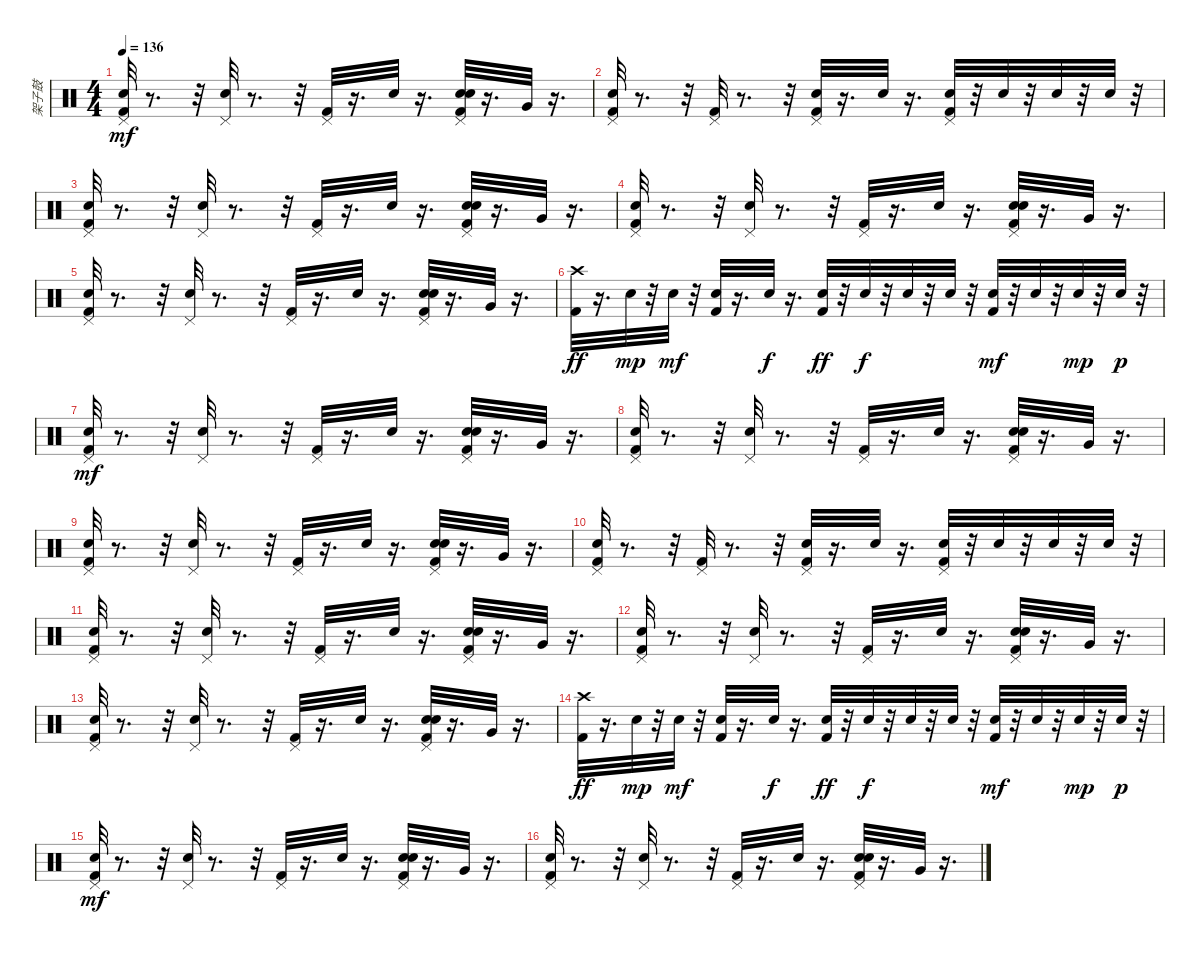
\track ("架子鼓" "架子鼓") {instrument percussion}
\staff {score}
\articulation defaults
\ts (4 4)
\tempo 136
\clef neutral
\ks c
("Pedal Hi-Hat (hit)" "Kick (hit) 2" "Metronome (bell)").32{dy mf} r.8{d} r.32 ("Pedal Hi-Hat (hit)" "Metronome (bell)").32 r.8{d} r.32 ("Pedal Hi-Hat (hit)" "Kick (hit) 2").32 r.16{d} "Metronome (bell)".32 r.16{d} ("Pedal Hi-Hat (hit)" "Electric Snare (hit)" "Kick (hit) 2" "Metronome (bell)").32 r.16{d} "Very Low Tom (hit)".32 r.16{d} |
("Pedal Hi-Hat (hit)" "Kick (hit) 2" "Metronome (bell)").32 r.8{d} r.32 ("Pedal Hi-Hat (hit)" "Kick (hit) 2").32 r.8{d} r.32 ("Pedal Hi-Hat (hit)" "Kick (hit) 2" "Metronome (bell)").32 r.16{d} "Metronome (bell)".32 r.16{d} ("Pedal Hi-Hat (hit)" "Kick (hit) 2" "Metronome (bell)").32 r.32 "Metronome (bell)".32 r.32 "Metronome (bell)".32 r.32 "Metronome (bell)".32 r.32 |
("Pedal Hi-Hat (hit)" "Kick (hit) 2" "Metronome (bell)").32 r.8{d} r.32 ("Pedal Hi-Hat (hit)" "Metronome (bell)").32 r.8{d} r.32 ("Pedal Hi-Hat (hit)" "Kick (hit) 2").32 r.16{d} "Metronome (bell)".32 r.16{d} ("Pedal Hi-Hat (hit)" "Electric Snare (hit)" "Kick (hit) 2" "Metronome (bell)").32 r.16{d} "Very Low Tom (hit)".32 r.16{d} |
("Pedal Hi-Hat (hit)" "Kick (hit) 2" "Metronome (bell)").32 r.8{d} r.32 ("Pedal Hi-Hat (hit)" "Metronome (bell)").32 r.8{d} r.32 ("Pedal Hi-Hat (hit)" "Kick (hit) 2").32 r.16{d} "Metronome (bell)".32 r.16{d} ("Pedal Hi-Hat (hit)" "Electric Snare (hit)" "Kick (hit) 2" "Metronome (bell)").32 r.16{d} "Very Low Tom (hit)".32 r.16{d} |
("Pedal Hi-Hat (hit)" "Kick (hit) 2" "Metronome (bell)").32 r.8{d} r.32 ("Pedal Hi-Hat (hit)" "Metronome (bell)").32 r.8{d} r.32 ("Pedal Hi-Hat (hit)" "Kick (hit) 2").32 r.16{d} "Metronome (bell)".32 r.16{d} ("Pedal Hi-Hat (hit)" "Electric Snare (hit)" "Kick (hit) 2" "Metronome (bell)").32 r.16{d} "Very Low Tom (hit)".32 r.16{d} |
("Crash high (hit)" "Kick (hit) 2").32{dy ff} r.16{d} "Metronome (bell)".32{dy mp} r.32 "Metronome (bell)".32{dy mf} r.32 ("Metronome (bell)" "Kick (hit) 2").32 r.16{d} "Metronome (bell)".32{dy f} r.16{d} ("Kick (hit) 2" "Metronome (bell)").32{dy ff} r.32 "Metronome (bell)".32{dy f} r.32 "Metronome (bell)".32 r.32 "Metronome (bell)".32 r.32 ("Kick (hit) 2" "Metronome (bell)").32{dy mf} r.32 "Metronome (bell)".32 r.32 "Metronome (bell)".32{dy mp} r.32 "Metronome (bell)".32{dy p} r.32 |
("Pedal Hi-Hat (hit)" "Kick (hit) 2" "Metronome (bell)").32{dy mf} r.8{d} r.32 ("Pedal Hi-Hat (hit)" "Metronome (bell)").32 r.8{d} r.32 ("Pedal Hi-Hat (hit)" "Kick (hit) 2").32 r.16{d} "Metronome (bell)".32 r.16{d} ("Pedal Hi-Hat (hit)" "Electric Snare (hit)" "Kick (hit) 2" "Metronome (bell)").32 r.16{d} "Very Low Tom (hit)".32 r.16{d} |
("Pedal Hi-Hat (hit)" "Kick (hit) 2" "Metronome (bell)").32 r.8{d} r.32 ("Pedal Hi-Hat (hit)" "Metronome (bell)").32 r.8{d} r.32 ("Pedal Hi-Hat (hit)" "Kick (hit) 2").32 r.16{d} "Metronome (bell)".32 r.16{d} ("Pedal Hi-Hat (hit)" "Electric Snare (hit)" "Kick (hit) 2" "Metronome (bell)").32 r.16{d} "Very Low Tom (hit)".32 r.16{d} |
("Pedal Hi-Hat (hit)" "Kick (hit) 2" "Metronome (bell)").32 r.8{d} r.32 ("Pedal Hi-Hat (hit)" "Metronome (bell)").32 r.8{d} r.32 ("Pedal Hi-Hat (hit)" "Kick (hit) 2").32 r.16{d} "Metronome (bell)".32 r.16{d} ("Pedal Hi-Hat (hit)" "Electric Snare (hit)" "Kick (hit) 2" "Metronome (bell)").32 r.16{d} "Very Low Tom (hit)".32 r.16{d} |
("Pedal Hi-Hat (hit)" "Kick (hit) 2" "Metronome (bell)").32 r.8{d} r.32 ("Pedal Hi-Hat (hit)" "Kick (hit) 2").32 r.8{d} r.32 ("Pedal Hi-Hat (hit)" "Kick (hit) 2" "Metronome (bell)").32 r.16{d} "Metronome (bell)".32 r.16{d} ("Pedal Hi-Hat (hit)" "Kick (hit) 2" "Metronome (bell)").32 r.32 "Metronome (bell)".32 r.32 "Metronome (bell)".32 r.32 "Metronome (bell)".32 r.32 |
("Pedal Hi-Hat (hit)" "Kick (hit) 2" "Metronome (bell)").32 r.8{d} r.32 ("Pedal Hi-Hat (hit)" "Metronome (bell)").32 r.8{d} r.32 ("Pedal Hi-Hat (hit)" "Kick (hit) 2").32 r.16{d} "Metronome (bell)".32 r.16{d} ("Pedal Hi-Hat (hit)" "Electric Snare (hit)" "Kick (hit) 2" "Metronome (bell)").32 r.16{d} "Very Low Tom (hit)".32 r.16{d} |
("Pedal Hi-Hat (hit)" "Kick (hit) 2" "Metronome (bell)").32 r.8{d} r.32 ("Pedal Hi-Hat (hit)" "Metronome (bell)").32 r.8{d} r.32 ("Pedal Hi-Hat (hit)" "Kick (hit) 2").32 r.16{d} "Metronome (bell)".32 r.16{d} ("Pedal Hi-Hat (hit)" "Electric Snare (hit)" "Kick (hit) 2" "Metronome (bell)").32 r.16{d} "Very Low Tom (hit)".32 r.16{d} |
("Pedal Hi-Hat (hit)" "Kick (hit) 2" "Metronome (bell)").32 r.8{d} r.32 ("Pedal Hi-Hat (hit)" "Metronome (bell)").32 r.8{d} r.32 ("Pedal Hi-Hat (hit)" "Kick (hit) 2").32 r.16{d} "Metronome (bell)".32 r.16{d} ("Pedal Hi-Hat (hit)" "Electric Snare (hit)" "Kick (hit) 2" "Metronome (bell)").32 r.16{d} "Very Low Tom (hit)".32 r.16{d} |
("Crash high (hit)" "Kick (hit) 2").32{dy ff} r.16{d} "Metronome (bell)".32{dy mp} r.32 "Metronome (bell)".32{dy mf} r.32 ("Metronome (bell)" "Kick (hit) 2").32 r.16{d} "Metronome (bell)".32{dy f} r.16{d} ("Kick (hit) 2" "Metronome (bell)").32{dy ff} r.32 "Metronome (bell)".32{dy f} r.32 "Metronome (bell)".32 r.32 "Metronome (bell)".32 r.32 ("Kick (hit) 2" "Metronome (bell)").32{dy mf} r.32 "Metronome (bell)".32 r.32 "Metronome (bell)".32{dy mp} r.32 "Metronome (bell)".32{dy p} r.32 |
("Pedal Hi-Hat (hit)" "Kick (hit) 2" "Metronome (bell)").32{dy mf} r.8{d} r.32 ("Pedal Hi-Hat (hit)" "Metronome (bell)").32 r.8{d} r.32 ("Pedal Hi-Hat (hit)" "Kick (hit) 2").32 r.16{d} "Metronome (bell)".32 r.16{d} ("Pedal Hi-Hat (hit)" "Electric Snare (hit)" "Kick (hit) 2" "Metronome (bell)").32 r.16{d} "Very Low Tom (hit)".32 r.16{d} |
("Pedal Hi-Hat (hit)" "Kick (hit) 2" "Metronome (bell)").32 r.8{d} r.32 ("Pedal Hi-Hat (hit)" "Metronome (bell)").32 r.8{d} r.32 ("Pedal Hi-Hat (hit)" "Kick (hit) 2").32 r.16{d} "Metronome (bell)".32 r.16{d} ("Pedal Hi-Hat (hit)" "Electric Snare (hit)" "Kick (hit) 2" "Metronome (bell)").32 r.16{d} "Very Low Tom (hit)".32 r.16{d}
